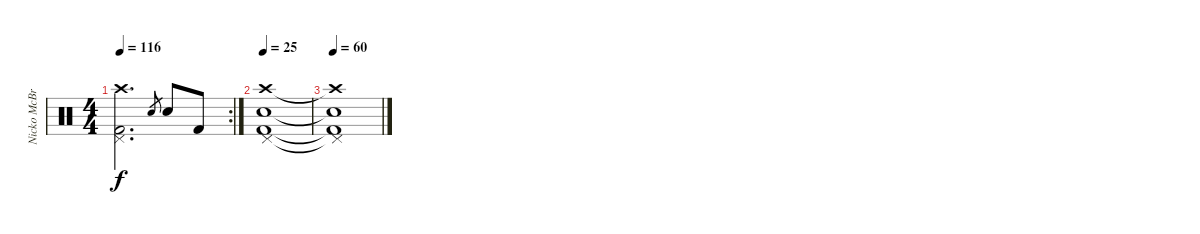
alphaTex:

\track ("Nicko McBrain" "Nicko McBr") {instrument percussion}
\staff {score}
\articulation defaults
\rc 2
\ts (4 4)
\tempo 116
\clef neutral
\ks c
("Kick (hit) 2" "Pedal Hi-Hat (hit)" "Crash high (hit)").2{d dy f} "Snare (hit) 2".8{gr} "Snare (hit) 2".8 "Kick (hit) 2".8 |
\tempo 25
("Snare (hit) 2" "Kick (hit) 2" "Pedal Hi-Hat (hit)" "Crash high (hit)").1 |
\tempo 60
("Snare (hit) 2"{t} "Kick (hit) 2"{t} "Pedal Hi-Hat (hit)"{t} "Crash high (hit)"{t}).1
